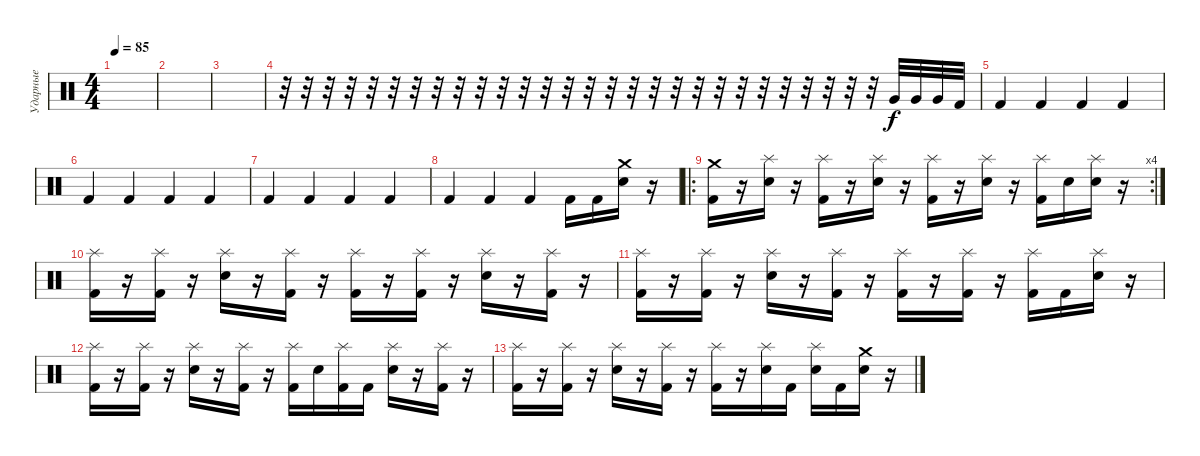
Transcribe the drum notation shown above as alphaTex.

\track ("Ударные" "Ударные") {instrument percussion}
\staff {score}
\articulation defaults
\ts (4 4)
\tempo 85
\clef neutral
\ks c
|
|
|
r.32 r.32 r.32 r.32 r.32 r.32 r.32 r.32 r.32 r.32 r.32 r.32 r.32 r.32 r.32 r.32 r.32 r.32 r.32 r.32 r.32 r.32 r.32 r.32 r.32 r.32 r.32 r.32 "Very Low Tom (hit)".32 "Very Low Tom (hit)".32 "Very Low Tom (hit)".32 "Kick (hit) 2".32 |
"Kick (hit) 2".4 "Kick (hit) 2".4 "Kick (hit) 2".4 "Kick (hit) 2".4 |
"Kick (hit) 2".4 "Kick (hit) 2".4 "Kick (hit) 2".4 "Kick (hit) 2".4 |
"Kick (hit) 2".4 "Kick (hit) 2".4 "Kick (hit) 2".4 "Kick (hit) 2".4 |
"Kick (hit) 2".4 "Kick (hit) 2".4 "Kick (hit) 2".4 "Kick (hit) 2".16 "Kick (hit) 2".16 ("Crash medium (hit)" "Snare (hit) 2").16 r.16 |
\ro
\rc 4
("Crash medium (hit)" "Kick (hit) 2").16 r.16 ("Splash (hit)" "Snare (hit) 2").16 r.16 ("Splash (hit)" "Kick (hit) 2").16 r.16 ("Splash (hit)" "Snare (hit) 2").16 r.16 ("Splash (hit)" "Kick (hit) 2").16 r.16 ("Splash (hit)" "Snare (hit) 2").16 r.16 ("Splash (hit)" "Kick (hit) 2").16 "Snare (hit) 2".16 ("Splash (hit)" "Snare (hit) 2").16 r.16 |
("Splash (hit)" "Kick (hit) 2").16 r.16 ("Splash (hit)" "Kick (hit) 2").16 r.16 ("Splash (hit)" "Snare (hit) 2").16 r.16 ("Splash (hit)" "Kick (hit) 2").16 r.16 ("Splash (hit)" "Kick (hit) 2").16 r.16 ("Splash (hit)" "Kick (hit) 2").16 r.16 ("Splash (hit)" "Snare (hit) 2").16 r.16 ("Splash (hit)" "Kick (hit) 2").16 r.16 |
("Splash (hit)" "Kick (hit) 2").16 r.16 ("Splash (hit)" "Kick (hit) 2").16 r.16 ("Splash (hit)" "Snare (hit) 2").16 r.16 ("Splash (hit)" "Kick (hit) 2").16 r.16 ("Splash (hit)" "Kick (hit) 2").16 r.16 ("Splash (hit)" "Kick (hit) 2").16 r.16 ("Splash (hit)" "Kick (hit) 2").16 "Kick (hit) 2".16 ("Splash (hit)" "Snare (hit) 2").16 r.16 |
("Splash (hit)" "Kick (hit) 2").16 r.16 ("Splash (hit)" "Kick (hit) 2").16 r.16 ("Splash (hit)" "Snare (hit) 2").16 r.16 ("Splash (hit)" "Kick (hit) 2").16 r.16 ("Splash (hit)" "Kick (hit) 2").16 "Snare (hit) 2".16 ("Splash (hit)" "Kick (hit) 2").16 "Kick (hit) 2".16 ("Splash (hit)" "Snare (hit) 2").16 r.16 ("Splash (hit)" "Kick (hit) 2").16 r.16 |
("Splash (hit)" "Kick (hit) 2").16 r.16 ("Splash (hit)" "Kick (hit) 2").16 r.16 ("Splash (hit)" "Snare (hit) 2").16 r.16 ("Splash (hit)" "Kick (hit) 2").16 r.16 ("Splash (hit)" "Kick (hit) 2").16 r.16 ("Splash (hit)" "Snare (hit) 2").16 "Kick (hit) 2".16 ("Splash (hit)" "Snare (hit) 2").16 "Kick (hit) 2".16 ("Crash medium (hit)" "Snare (hit) 2").16 r.16
